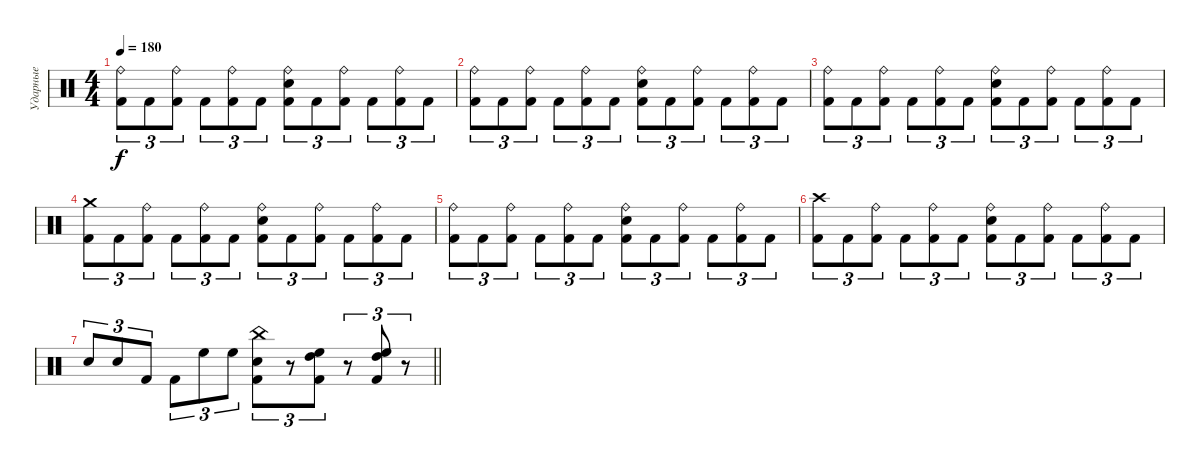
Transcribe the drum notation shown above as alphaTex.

\track ("Ударные" "Ударные") {instrument percussion}
\staff {score}
\articulation defaults
\ts (4 4)
\tempo 180
\clef neutral
\ks c
("Ride (bell)" "Kick (hit) 2").8{tu (3 2) dy f} "Kick (hit) 2".8{tu (3 2)} ("Ride (bell)" "Kick (hit) 2").8{tu (3 2)} "Kick (hit) 2".8{tu (3 2)} ("Ride (bell)" "Kick (hit) 2").8{tu (3 2)} "Kick (hit) 2".8{tu (3 2)} ("Electric Snare (hit)" "Ride (bell)" "Kick (hit) 2").8{tu (3 2)} "Kick (hit) 2".8{tu (3 2)} ("Ride (bell)" "Kick (hit) 2").8{tu (3 2)} "Kick (hit) 2".8{tu (3 2)} ("Ride (bell)" "Kick (hit) 2").8{tu (3 2)} "Kick (hit) 2".8{tu (3 2)} |
("Ride (bell)" "Kick (hit) 2").8{tu (3 2)} "Kick (hit) 2".8{tu (3 2)} ("Ride (bell)" "Kick (hit) 2").8{tu (3 2)} "Kick (hit) 2".8{tu (3 2)} ("Ride (bell)" "Kick (hit) 2").8{tu (3 2)} "Kick (hit) 2".8{tu (3 2)} ("Electric Snare (hit)" "Ride (bell)" "Kick (hit) 2").8{tu (3 2)} "Kick (hit) 2".8{tu (3 2)} ("Ride (bell)" "Kick (hit) 2").8{tu (3 2)} "Kick (hit) 2".8{tu (3 2)} ("Ride (bell)" "Kick (hit) 2").8{tu (3 2)} "Kick (hit) 2".8{tu (3 2)} |
("Ride (bell)" "Kick (hit) 2").8{tu (3 2)} "Kick (hit) 2".8{tu (3 2)} ("Ride (bell)" "Kick (hit) 2").8{tu (3 2)} "Kick (hit) 2".8{tu (3 2)} ("Ride (bell)" "Kick (hit) 2").8{tu (3 2)} "Kick (hit) 2".8{tu (3 2)} ("Electric Snare (hit)" "Ride (bell)" "Kick (hit) 2").8{tu (3 2)} "Kick (hit) 2".8{tu (3 2)} ("Ride (bell)" "Kick (hit) 2").8{tu (3 2)} "Kick (hit) 2".8{tu (3 2)} ("Ride (bell)" "Kick (hit) 2").8{tu (3 2)} "Kick (hit) 2".8{tu (3 2)} |
("Crash medium (hit)" "Kick (hit) 2").8{tu (3 2)} "Kick (hit) 2".8{tu (3 2)} ("Ride (bell)" "Kick (hit) 2").8{tu (3 2)} "Kick (hit) 2".8{tu (3 2)} ("Ride (bell)" "Kick (hit) 2").8{tu (3 2)} "Kick (hit) 2".8{tu (3 2)} ("Electric Snare (hit)" "Ride (bell)" "Kick (hit) 2").8{tu (3 2)} "Kick (hit) 2".8{tu (3 2)} ("Ride (bell)" "Kick (hit) 2").8{tu (3 2)} "Kick (hit) 2".8{tu (3 2)} ("Ride (bell)" "Kick (hit) 2").8{tu (3 2)} "Kick (hit) 2".8{tu (3 2)} |
("Ride (bell)" "Kick (hit) 2").8{tu (3 2)} "Kick (hit) 2".8{tu (3 2)} ("Ride (bell)" "Kick (hit) 2").8{tu (3 2)} "Kick (hit) 2".8{tu (3 2)} ("Ride (bell)" "Kick (hit) 2").8{tu (3 2)} "Kick (hit) 2".8{tu (3 2)} ("Electric Snare (hit)" "Ride (bell)" "Kick (hit) 2").8{tu (3 2)} "Kick (hit) 2".8{tu (3 2)} ("Ride (bell)" "Kick (hit) 2").8{tu (3 2)} "Kick (hit) 2".8{tu (3 2)} ("Ride (bell)" "Kick (hit) 2").8{tu (3 2)} "Kick (hit) 2".8{tu (3 2)} |
("Crash high (hit)" "Kick (hit) 2").8{tu (3 2)} "Kick (hit) 2".8{tu (3 2)} ("Ride (bell)" "Kick (hit) 2").8{tu (3 2)} "Kick (hit) 2".8{tu (3 2)} ("Ride (bell)" "Kick (hit) 2").8{tu (3 2)} "Kick (hit) 2".8{tu (3 2)} ("Electric Snare (hit)" "Ride (bell)" "Kick (hit) 2").8{tu (3 2)} "Kick (hit) 2".8{tu (3 2)} ("Ride (bell)" "Kick (hit) 2").8{tu (3 2)} "Kick (hit) 2".8{tu (3 2)} ("Ride (bell)" "Kick (hit) 2").8{tu (3 2)} "Kick (hit) 2".8{tu (3 2)} |
\barLineRight lightlight "Electric Snare (hit)".8{tu (3 2)} "Electric Snare (hit)".8{tu (3 2)} "Kick (hit) 2".8{tu (3 2)} "Kick (hit) 2".8{tu (3 2)} "High Floor Tom (hit)".8{tu (3 2)} "High Floor Tom (hit)".8{tu (3 2)}
("China (hit)" "Electric Snare (hit)" "Kick (hit) 2").8{tu (3 2)} r.8{tu (3 2)} ("High Floor Tom (hit)" "High Tom (hit)" "Kick (hit) 2").8{tu (3 2)} r.8{tu (3 2)} ("High Floor Tom (hit)" "High Tom (hit)" "Kick (hit) 2").8{tu (3 2)} r.8{tu (3 2)}
